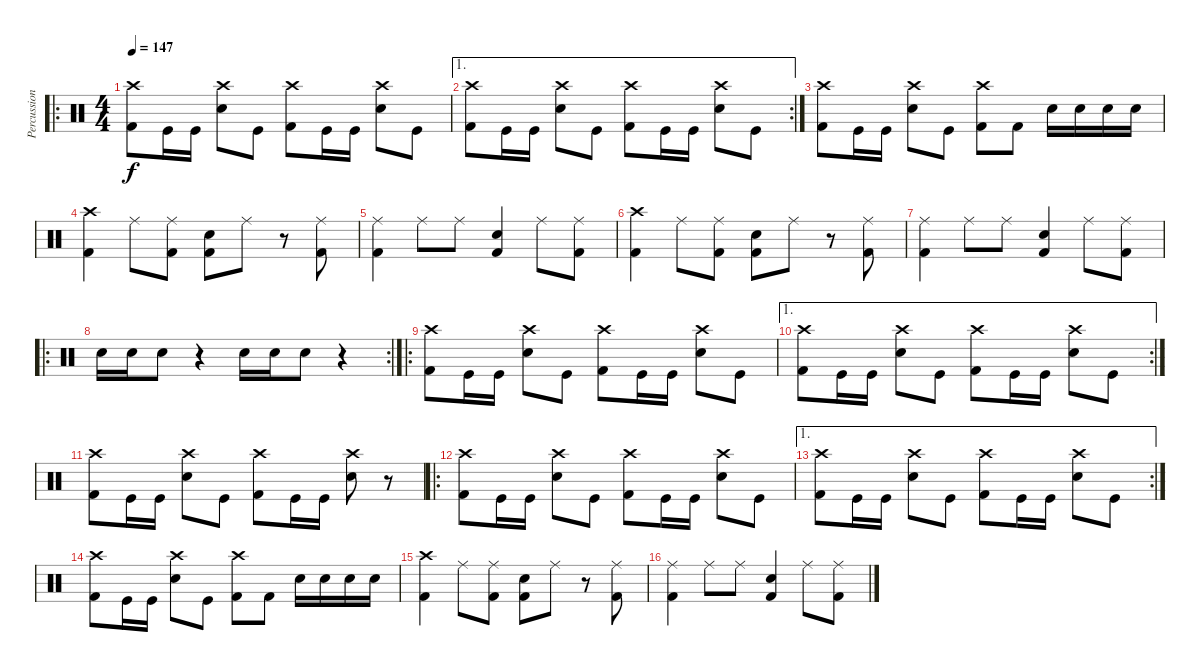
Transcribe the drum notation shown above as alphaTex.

\track ("Percussion" "Percussion") {instrument percussion}
\staff {score}
\articulation defaults
\ro
\ts (4 4)
\tempo 147
\clef neutral
\ks c
("Crash high (hit)" "Kick (hit) 2").8{dy f} "Kick (hit)".16 "Kick (hit)".16 ("Crash high (hit)" "Electric Snare (hit)").8 "Kick (hit)".8 ("Crash high (hit)" "Kick (hit) 2").8 "Kick (hit)".16 "Kick (hit)".16 ("Crash high (hit)" "Electric Snare (hit)").8 "Kick (hit)".8 |
\ae 1
\rc 2
("Crash high (hit)" "Kick (hit) 2").8 "Kick (hit)".16 "Kick (hit)".16 ("Crash high (hit)" "Electric Snare (hit)").8 "Kick (hit)".8 ("Crash high (hit)" "Kick (hit) 2").8 "Kick (hit)".16 "Kick (hit)".16 ("Crash high (hit)" "Electric Snare (hit)").8 "Kick (hit)".8 |
("Crash high (hit)" "Kick (hit) 2").8 "Kick (hit)".16 "Kick (hit)".16 ("Crash high (hit)" "Electric Snare (hit)").8 "Kick (hit)".8 ("Crash high (hit)" "Kick (hit) 2").8 "Kick (hit) 2".8 "Electric Snare (hit)".16 "Electric Snare (hit)".16 "Electric Snare (hit)".16 "Electric Snare (hit)".16 |
("Crash high (hit)" "Kick (hit) 2").4 "Ride (middle)".8 ("Ride (middle)" "Kick (hit) 2").8 ("Electric Snare (hit)" "Kick (hit) 2").8 "Ride (middle)".8 r.8 ("Ride (middle)" "Kick (hit) 2").8 |
("Ride (middle)" "Kick (hit) 2").4 "Ride (middle)".8 "Ride (middle)".8 ("Electric Snare (hit)" "Kick (hit) 2").4 "Ride (middle)".8 ("Ride (middle)" "Kick (hit) 2").8 |
("Crash high (hit)" "Kick (hit) 2").4 "Ride (middle)".8 ("Ride (middle)" "Kick (hit) 2").8 ("Electric Snare (hit)" "Kick (hit) 2").8 "Ride (middle)".8 r.8 ("Ride (middle)" "Kick (hit) 2").8 |
("Ride (middle)" "Kick (hit) 2").4 "Ride (middle)".8 "Ride (middle)".8 ("Electric Snare (hit)" "Kick (hit) 2").4 "Ride (middle)".8 ("Ride (middle)" "Kick (hit) 2").8 |
\ro
\rc 2 "Electric Snare (hit)".16 "Electric Snare (hit)".16 "Electric Snare (hit)".8
r.4 "Electric Snare (hit)".16 "Electric Snare (hit)".16 "Electric Snare (hit)".8 r.4 |
\ro
("Crash high (hit)" "Kick (hit) 2").8 "Kick (hit)".16 "Kick (hit)".16 ("Crash high (hit)" "Electric Snare (hit)").8 "Kick (hit)".8 ("Crash high (hit)" "Kick (hit) 2").8 "Kick (hit)".16 "Kick (hit)".16 ("Crash high (hit)" "Electric Snare (hit)").8 "Kick (hit)".8 |
\ae 1
\rc 2
("Crash high (hit)" "Kick (hit) 2").8 "Kick (hit)".16 "Kick (hit)".16 ("Crash high (hit)" "Electric Snare (hit)").8 "Kick (hit)".8 ("Crash high (hit)" "Kick (hit) 2").8 "Kick (hit)".16 "Kick (hit)".16 ("Crash high (hit)" "Electric Snare (hit)").8 "Kick (hit)".8 |
("Crash high (hit)" "Kick (hit) 2").8 "Kick (hit)".16 "Kick (hit)".16 ("Crash high (hit)" "Electric Snare (hit)").8 "Kick (hit)".8 ("Crash high (hit)" "Kick (hit) 2").8 "Kick (hit)".16 "Kick (hit)".16 ("Crash high (hit)" "Electric Snare (hit)").8 r.8 |
\ro
("Crash high (hit)" "Kick (hit) 2").8 "Kick (hit)".16 "Kick (hit)".16 ("Crash high (hit)" "Electric Snare (hit)").8 "Kick (hit)".8 ("Crash high (hit)" "Kick (hit) 2").8 "Kick (hit)".16 "Kick (hit)".16 ("Crash high (hit)" "Electric Snare (hit)").8 "Kick (hit)".8 |
\ae 1
\rc 2
("Crash high (hit)" "Kick (hit) 2").8 "Kick (hit)".16 "Kick (hit)".16 ("Crash high (hit)" "Electric Snare (hit)").8 "Kick (hit)".8 ("Crash high (hit)" "Kick (hit) 2").8 "Kick (hit)".16 "Kick (hit)".16 ("Crash high (hit)" "Electric Snare (hit)").8 "Kick (hit)".8 |
("Crash high (hit)" "Kick (hit) 2").8 "Kick (hit)".16 "Kick (hit)".16 ("Crash high (hit)" "Electric Snare (hit)").8 "Kick (hit)".8 ("Crash high (hit)" "Kick (hit) 2").8 "Kick (hit) 2".8 "Electric Snare (hit)".16 "Electric Snare (hit)".16 "Electric Snare (hit)".16 "Electric Snare (hit)".16 |
("Crash high (hit)" "Kick (hit) 2").4 "Ride (middle)".8 ("Ride (middle)" "Kick (hit) 2").8 ("Electric Snare (hit)" "Kick (hit) 2").8 "Ride (middle)".8 r.8 ("Ride (middle)" "Kick (hit) 2").8 |
("Ride (middle)" "Kick (hit) 2").4 "Ride (middle)".8 "Ride (middle)".8 ("Electric Snare (hit)" "Kick (hit) 2").4 "Ride (middle)".8 ("Ride (middle)" "Kick (hit) 2").8
